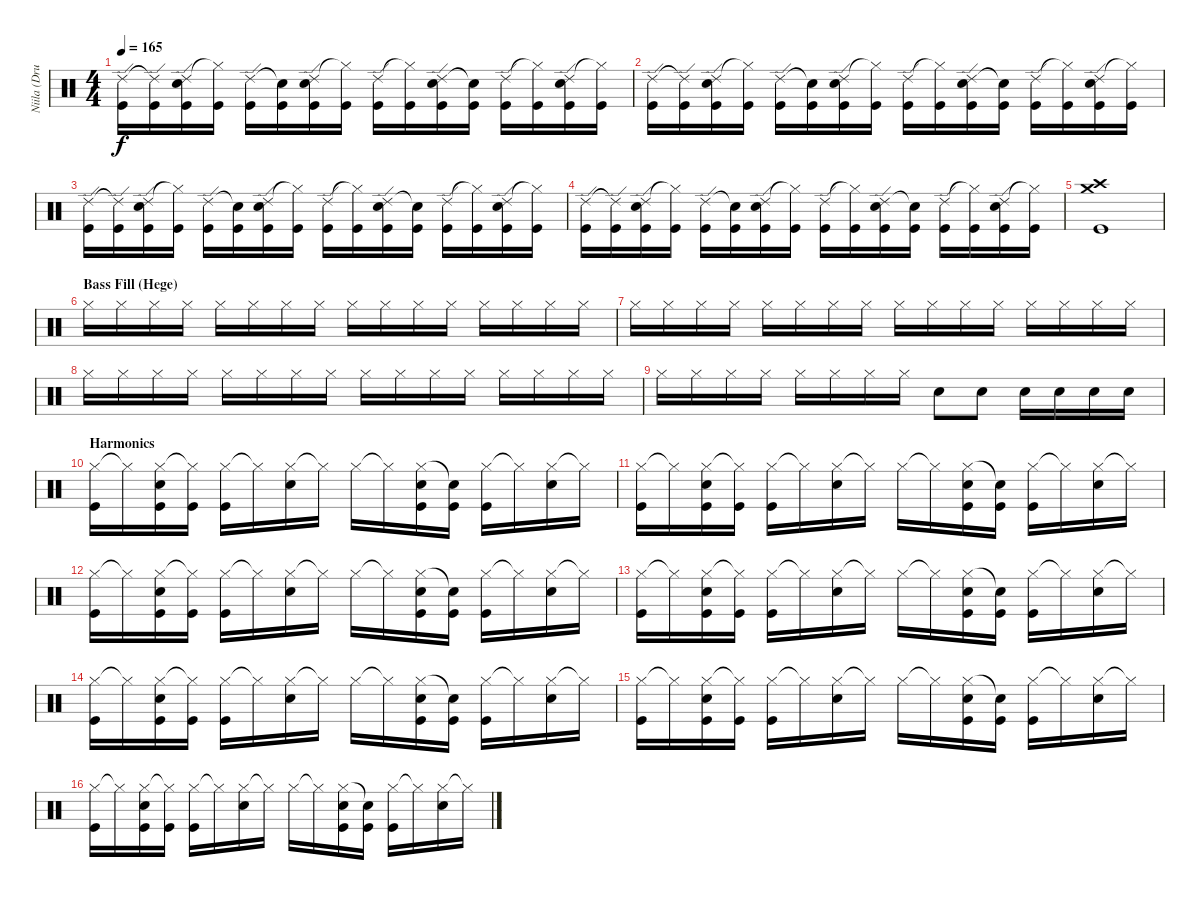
\track ("Niila (Drums)" "Niila (Dru") {instrument percussion}
\staff {score}
\articulation defaults
\ts (4 4)
\tempo 165
\clef neutral
\ks c
("Ride (edge) 2" "Kick (hit)").16{dy f} ("Ride (edge) 2"{t} "Kick (hit)").16 ("Ride (edge) 2" "Snare (hit) 2" "Kick (hit)").16 ("Hi-Hat (closed)"{t} "Kick (hit)").16 ("Ride (edge) 2" "Kick (hit)").16 ("Snare (hit)"{t} "Kick (hit)").16 ("Ride (edge) 2" "Snare (hit) 2" "Kick (hit)").16 ("Hi-Hat (closed)"{t} "Kick (hit)").16 ("Ride (edge) 2" "Kick (hit)").16 ("Hi-Hat (closed)"{t} "Kick (hit)").16 ("Ride (edge) 2" "Snare (hit) 2" "Kick (hit)").16 ("Snare (hit)"{t} "Kick (hit)").16 ("Ride (edge) 2" "Kick (hit)").16 ("Hi-Hat (closed)"{t} "Kick (hit)").16 ("Ride (edge) 2" "Snare (hit) 2" "Kick (hit)").16 ("Hi-Hat (closed)"{t} "Kick (hit)").16 |
("Ride (edge) 2" "Kick (hit)").16 ("Ride (edge) 2"{t} "Kick (hit)").16 ("Ride (edge) 2" "Snare (hit) 2" "Kick (hit)").16 ("Hi-Hat (closed)"{t} "Kick (hit)").16 ("Ride (edge) 2" "Kick (hit)").16 ("Snare (hit)"{t} "Kick (hit)").16 ("Ride (edge) 2" "Snare (hit) 2" "Kick (hit)").16 ("Hi-Hat (closed)"{t} "Kick (hit)").16 ("Ride (edge) 2" "Kick (hit)").16 ("Hi-Hat (closed)"{t} "Kick (hit)").16 ("Ride (edge) 2" "Snare (hit) 2" "Kick (hit)").16 ("Snare (hit)"{t} "Kick (hit)").16 ("Ride (edge) 2" "Kick (hit)").16 ("Hi-Hat (closed)"{t} "Kick (hit)").16 ("Ride (edge) 2" "Snare (hit) 2" "Kick (hit)").16 ("Hi-Hat (closed)"{t} "Kick (hit)").16 |
("Ride (edge) 2" "Kick (hit)").16 ("Ride (edge) 2"{t} "Kick (hit)").16 ("Ride (edge) 2" "Snare (hit) 2" "Kick (hit)").16 ("Hi-Hat (closed)"{t} "Kick (hit)").16 ("Ride (edge) 2" "Kick (hit)").16 ("Snare (hit)"{t} "Kick (hit)").16 ("Ride (edge) 2" "Snare (hit) 2" "Kick (hit)").16 ("Hi-Hat (closed)"{t} "Kick (hit)").16 ("Ride (edge) 2" "Kick (hit)").16 ("Hi-Hat (closed)"{t} "Kick (hit)").16 ("Ride (edge) 2" "Snare (hit) 2" "Kick (hit)").16 ("Snare (hit)"{t} "Kick (hit)").16 ("Ride (edge) 2" "Kick (hit)").16 ("Hi-Hat (closed)"{t} "Kick (hit)").16 ("Ride (edge) 2" "Snare (hit) 2" "Kick (hit)").16 ("Hi-Hat (closed)"{t} "Kick (hit)").16 |
("Ride (edge) 2" "Kick (hit)").16 ("Ride (edge) 2"{t} "Kick (hit)").16 ("Ride (edge) 2" "Snare (hit) 2" "Kick (hit)").16 ("Hi-Hat (closed)"{t} "Kick (hit)").16 ("Ride (edge) 2" "Kick (hit)").16 ("Snare (hit)"{t} "Kick (hit)").16 ("Ride (edge) 2" "Snare (hit) 2" "Kick (hit)").16 ("Hi-Hat (closed)"{t} "Kick (hit)").16 ("Ride (edge) 2" "Kick (hit)").16 ("Hi-Hat (closed)"{t} "Kick (hit)").16 ("Ride (edge) 2" "Snare (hit) 2" "Kick (hit)").16 ("Snare (hit)"{t} "Kick (hit)").16 ("Ride (edge) 2" "Kick (hit)").16 ("Hi-Hat (closed)"{t} "Kick (hit)").16 ("Ride (edge) 2" "Snare (hit) 2" "Kick (hit)").16 ("Hi-Hat (closed)"{t} "Kick (hit)").16 |
("Crash medium (hit)" "Crash high (hit)" "Kick (hit)").1 |
\section ("" "Bass Fill (Hege)")
"Hi-Hat (closed)".16 "Hi-Hat (closed)".16 "Hi-Hat (closed)".16 "Hi-Hat (closed)".16 "Hi-Hat (closed)".16 "Hi-Hat (closed)".16 "Hi-Hat (closed)".16 "Hi-Hat (closed)".16 "Hi-Hat (closed)".16 "Hi-Hat (closed)".16 "Hi-Hat (closed)".16 "Hi-Hat (closed)".16 "Hi-Hat (closed)".16 "Hi-Hat (closed)".16 "Hi-Hat (closed)".16 "Hi-Hat (closed)".16 |
"Hi-Hat (closed)".16 "Hi-Hat (closed)".16 "Hi-Hat (closed)".16 "Hi-Hat (closed)".16 "Hi-Hat (closed)".16 "Hi-Hat (closed)".16 "Hi-Hat (closed)".16 "Hi-Hat (closed)".16 "Hi-Hat (closed)".16 "Hi-Hat (closed)".16 "Hi-Hat (closed)".16 "Hi-Hat (closed)".16 "Hi-Hat (closed)".16 "Hi-Hat (closed)".16 "Hi-Hat (closed)".16 "Hi-Hat (closed)".16 |
"Hi-Hat (closed)".16 "Hi-Hat (closed)".16 "Hi-Hat (closed)".16 "Hi-Hat (closed)".16 "Hi-Hat (closed)".16 "Hi-Hat (closed)".16 "Hi-Hat (closed)".16 "Hi-Hat (closed)".16 "Hi-Hat (closed)".16 "Hi-Hat (closed)".16 "Hi-Hat (closed)".16 "Hi-Hat (closed)".16 "Hi-Hat (closed)".16 "Hi-Hat (closed)".16 "Hi-Hat (closed)".16 "Hi-Hat (closed)".16 |
"Hi-Hat (closed)".16 "Hi-Hat (closed)".16 "Hi-Hat (closed)".16 "Hi-Hat (closed)".16 "Hi-Hat (closed)".16 "Hi-Hat (closed)".16 "Hi-Hat (closed)".16 "Hi-Hat (closed)".16 "Snare (hit) 2".8 "Snare (hit) 2".8 "Snare (hit) 2".16 "Snare (hit) 2".16 "Snare (hit) 2".16 "Snare (hit) 2".16 |
\section ("" "Harmonics ")
("Hi-Hat (closed)" "Kick (hit)").16 "Hi-Hat (closed)"{t}.16 ("Hi-Hat (closed)" "Snare (hit) 2" "Kick (hit)").16 ("Hi-Hat (closed)"{t} "Kick (hit)").16 ("Hi-Hat (closed)" "Kick (hit)").16 "Hi-Hat (closed)"{t}.16 ("Hi-Hat (closed)" "Snare (hit) 2").16 "Hi-Hat (closed)"{t}.16 "Hi-Hat (closed)".16 "Hi-Hat (closed)"{t}.16 ("Hi-Hat (closed)" "Snare (hit) 2" "Kick (hit)").16 ("Snare (hit)"{t} "Kick (hit)").16 ("Hi-Hat (closed)" "Kick (hit)").16 "Hi-Hat (closed)"{t}.16 ("Hi-Hat (closed)" "Snare (hit) 2").16 "Hi-Hat (closed)"{t}.16 |
("Hi-Hat (closed)" "Kick (hit)").16 "Hi-Hat (closed)"{t}.16 ("Hi-Hat (closed)" "Snare (hit) 2" "Kick (hit)").16 ("Hi-Hat (closed)"{t} "Kick (hit)").16 ("Hi-Hat (closed)" "Kick (hit)").16 "Hi-Hat (closed)"{t}.16 ("Hi-Hat (closed)" "Snare (hit) 2").16 "Hi-Hat (closed)"{t}.16 "Hi-Hat (closed)".16 "Hi-Hat (closed)"{t}.16 ("Hi-Hat (closed)" "Snare (hit) 2" "Kick (hit)").16 ("Snare (hit)"{t} "Kick (hit)").16 ("Hi-Hat (closed)" "Kick (hit)").16 "Hi-Hat (closed)"{t}.16 ("Hi-Hat (closed)" "Snare (hit) 2").16 "Hi-Hat (closed)"{t}.16 |
("Hi-Hat (closed)" "Kick (hit)").16 "Hi-Hat (closed)"{t}.16 ("Hi-Hat (closed)" "Snare (hit) 2" "Kick (hit)").16 ("Hi-Hat (closed)"{t} "Kick (hit)").16 ("Hi-Hat (closed)" "Kick (hit)").16 "Hi-Hat (closed)"{t}.16 ("Hi-Hat (closed)" "Snare (hit) 2").16 "Hi-Hat (closed)"{t}.16 "Hi-Hat (closed)".16 "Hi-Hat (closed)"{t}.16 ("Hi-Hat (closed)" "Snare (hit) 2" "Kick (hit)").16 ("Snare (hit)"{t} "Kick (hit)").16 ("Hi-Hat (closed)" "Kick (hit)").16 "Hi-Hat (closed)"{t}.16 ("Hi-Hat (closed)" "Snare (hit) 2").16 "Hi-Hat (closed)"{t}.16 |
("Hi-Hat (closed)" "Kick (hit)").16 "Hi-Hat (closed)"{t}.16 ("Hi-Hat (closed)" "Snare (hit) 2" "Kick (hit)").16 ("Hi-Hat (closed)"{t} "Kick (hit)").16 ("Hi-Hat (closed)" "Kick (hit)").16 "Hi-Hat (closed)"{t}.16 ("Hi-Hat (closed)" "Snare (hit) 2").16 "Hi-Hat (closed)"{t}.16 "Hi-Hat (closed)".16 "Hi-Hat (closed)"{t}.16 ("Hi-Hat (closed)" "Snare (hit) 2" "Kick (hit)").16 ("Snare (hit)"{t} "Kick (hit)").16 ("Hi-Hat (closed)" "Kick (hit)").16 "Hi-Hat (closed)"{t}.16 ("Hi-Hat (closed)" "Snare (hit) 2").16 "Hi-Hat (closed)"{t}.16 |
("Hi-Hat (closed)" "Kick (hit)").16 "Hi-Hat (closed)"{t}.16 ("Hi-Hat (closed)" "Snare (hit) 2" "Kick (hit)").16 ("Hi-Hat (closed)"{t} "Kick (hit)").16 ("Hi-Hat (closed)" "Kick (hit)").16 "Hi-Hat (closed)"{t}.16 ("Hi-Hat (closed)" "Snare (hit) 2").16 "Hi-Hat (closed)"{t}.16 "Hi-Hat (closed)".16 "Hi-Hat (closed)"{t}.16 ("Hi-Hat (closed)" "Snare (hit) 2" "Kick (hit)").16 ("Snare (hit)"{t} "Kick (hit)").16 ("Hi-Hat (closed)" "Kick (hit)").16 "Hi-Hat (closed)"{t}.16 ("Hi-Hat (closed)" "Snare (hit) 2").16 "Hi-Hat (closed)"{t}.16 |
("Hi-Hat (closed)" "Kick (hit)").16 "Hi-Hat (closed)"{t}.16 ("Hi-Hat (closed)" "Snare (hit) 2" "Kick (hit)").16 ("Hi-Hat (closed)"{t} "Kick (hit)").16 ("Hi-Hat (closed)" "Kick (hit)").16 "Hi-Hat (closed)"{t}.16 ("Hi-Hat (closed)" "Snare (hit) 2").16 "Hi-Hat (closed)"{t}.16 "Hi-Hat (closed)".16 "Hi-Hat (closed)"{t}.16 ("Hi-Hat (closed)" "Snare (hit) 2" "Kick (hit)").16 ("Snare (hit)"{t} "Kick (hit)").16 ("Hi-Hat (closed)" "Kick (hit)").16 "Hi-Hat (closed)"{t}.16 ("Hi-Hat (closed)" "Snare (hit) 2").16 "Hi-Hat (closed)"{t}.16 |
("Hi-Hat (closed)" "Kick (hit)").16 "Hi-Hat (closed)"{t}.16 ("Hi-Hat (closed)" "Snare (hit) 2" "Kick (hit)").16 ("Hi-Hat (closed)"{t} "Kick (hit)").16 ("Hi-Hat (closed)" "Kick (hit)").16 "Hi-Hat (closed)"{t}.16 ("Hi-Hat (closed)" "Snare (hit) 2").16 "Hi-Hat (closed)"{t}.16 "Hi-Hat (closed)".16 "Hi-Hat (closed)"{t}.16 ("Hi-Hat (closed)" "Snare (hit) 2" "Kick (hit)").16 ("Snare (hit)"{t} "Kick (hit)").16 ("Hi-Hat (closed)" "Kick (hit)").16 "Hi-Hat (closed)"{t}.16 ("Hi-Hat (closed)" "Snare (hit) 2").16 "Hi-Hat (closed)"{t}.16
